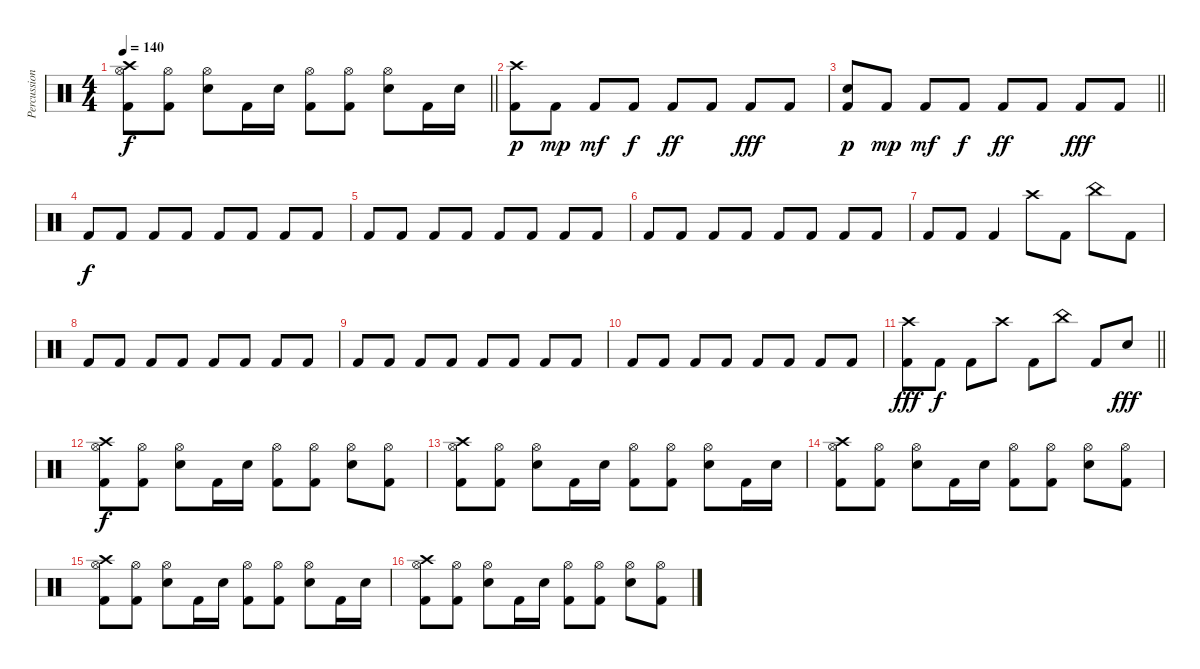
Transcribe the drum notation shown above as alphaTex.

\track ("Percussion" "Percussion") {instrument percussion}
\staff {score}
\articulation defaults
\ts (4 4)
\tempo 140
\clef neutral
\barLineRight lightlight
\ks c
("Hi-Hat (open)" "Crash high (hit)" "Kick (hit) 2").8{dy f} ("Hi-Hat (open)" "Kick (hit) 2").8 ("Hi-Hat (open)" "Snare (hit) 2").8 "Kick (hit) 2".16 "Snare (hit) 2".16 ("Hi-Hat (open)" "Kick (hit) 2").8 ("Hi-Hat (open)" "Kick (hit) 2").8 ("Hi-Hat (open)" "Snare (hit) 2").8 "Kick (hit) 2".16 "Snare (hit) 2".16 |
\section ("" "")
("Crash high (hit)" "Kick (hit) 2").8{dy p} "Kick (hit) 2".8{dy mp} "Kick (hit) 2".8{dy mf} "Kick (hit) 2".8{dy f} "Kick (hit) 2".8{dy ff} "Kick (hit) 2".8 "Kick (hit) 2".8{dy fff} "Kick (hit) 2".8 |
\barLineRight lightlight
("Snare (hit) 2" "Kick (hit) 2").8{dy p} "Kick (hit) 2".8{dy mp} "Kick (hit) 2".8{dy mf} "Kick (hit) 2".8{dy f} "Kick (hit) 2".8{dy ff} "Kick (hit) 2".8 "Kick (hit) 2".8{dy fff} "Kick (hit) 2".8 |
\section ("" "")
"Kick (hit) 2".8{dy f} "Kick (hit) 2".8 "Kick (hit) 2".8 "Kick (hit) 2".8 "Kick (hit) 2".8 "Kick (hit) 2".8 "Kick (hit) 2".8 "Kick (hit) 2".8 |
"Kick (hit) 2".8 "Kick (hit) 2".8 "Kick (hit) 2".8 "Kick (hit) 2".8 "Kick (hit) 2".8 "Kick (hit) 2".8 "Kick (hit) 2".8 "Kick (hit) 2".8 |
"Kick (hit) 2".8 "Kick (hit) 2".8 "Kick (hit) 2".8 "Kick (hit) 2".8 "Kick (hit) 2".8 "Kick (hit) 2".8 "Kick (hit) 2".8 "Kick (hit) 2".8 |
"Kick (hit) 2".8 "Kick (hit) 2".8 "Kick (hit) 2".4 "Crash high (hit)".8 "Kick (hit) 2".8 "China (hit)".8 "Kick (hit) 2".8 |
"Kick (hit) 2".8 "Kick (hit) 2".8 "Kick (hit) 2".8 "Kick (hit) 2".8 "Kick (hit) 2".8 "Kick (hit) 2".8 "Kick (hit) 2".8 "Kick (hit) 2".8 |
"Kick (hit) 2".8 "Kick (hit) 2".8 "Kick (hit) 2".8 "Kick (hit) 2".8 "Kick (hit) 2".8 "Kick (hit) 2".8 "Kick (hit) 2".8 "Kick (hit) 2".8 |
"Kick (hit) 2".8 "Kick (hit) 2".8 "Kick (hit) 2".8 "Kick (hit) 2".8 "Kick (hit) 2".8 "Kick (hit) 2".8 "Kick (hit) 2".8 "Kick (hit) 2".8 |
\barLineRight lightlight
("Kick (hit) 2" "Crash high (hit)").8{dy fff} "Kick (hit) 2".8{dy f} "Kick (hit) 2".8 "Crash high (hit)".8 "Kick (hit) 2".8 "China (hit)".8 "Kick (hit) 2".8 "Snare (hit) 2".8{dy fff} |
\section ("" "")
("Hi-Hat (open)" "Crash high (hit)" "Kick (hit) 2").8{dy f} ("Hi-Hat (open)" "Kick (hit) 2").8 ("Hi-Hat (open)" "Snare (hit) 2").8 "Kick (hit) 2".16 "Snare (hit) 2".16 ("Hi-Hat (open)" "Kick (hit) 2").8 ("Hi-Hat (open)" "Kick (hit) 2").8 ("Hi-Hat (open)" "Snare (hit) 2").8 ("Hi-Hat (open)" "Kick (hit) 2").8 |
("Hi-Hat (open)" "Crash high (hit)" "Kick (hit) 2").8 ("Hi-Hat (open)" "Kick (hit) 2").8 ("Hi-Hat (open)" "Snare (hit) 2").8 "Kick (hit) 2".16 "Snare (hit) 2".16 ("Hi-Hat (open)" "Kick (hit) 2").8 ("Hi-Hat (open)" "Kick (hit) 2").8 ("Hi-Hat (open)" "Snare (hit) 2").8 "Kick (hit) 2".16 "Snare (hit) 2".16 |
("Hi-Hat (open)" "Crash high (hit)" "Kick (hit) 2").8 ("Hi-Hat (open)" "Kick (hit) 2").8 ("Hi-Hat (open)" "Snare (hit) 2").8 "Kick (hit) 2".16 "Snare (hit) 2".16 ("Hi-Hat (open)" "Kick (hit) 2").8 ("Hi-Hat (open)" "Kick (hit) 2").8 ("Hi-Hat (open)" "Snare (hit) 2").8 ("Hi-Hat (open)" "Kick (hit) 2").8 |
("Hi-Hat (open)" "Crash high (hit)" "Kick (hit) 2").8 ("Hi-Hat (open)" "Kick (hit) 2").8 ("Hi-Hat (open)" "Snare (hit) 2").8 "Kick (hit) 2".16 "Snare (hit) 2".16 ("Hi-Hat (open)" "Kick (hit) 2").8 ("Hi-Hat (open)" "Kick (hit) 2").8 ("Hi-Hat (open)" "Snare (hit) 2").8 "Kick (hit) 2".16 "Snare (hit) 2".16 |
("Hi-Hat (open)" "Crash high (hit)" "Kick (hit) 2").8 ("Hi-Hat (open)" "Kick (hit) 2").8 ("Hi-Hat (open)" "Snare (hit) 2").8 "Kick (hit) 2".16 "Snare (hit) 2".16 ("Hi-Hat (open)" "Kick (hit) 2").8 ("Hi-Hat (open)" "Kick (hit) 2").8 ("Hi-Hat (open)" "Snare (hit) 2").8 ("Hi-Hat (open)" "Kick (hit) 2").8
